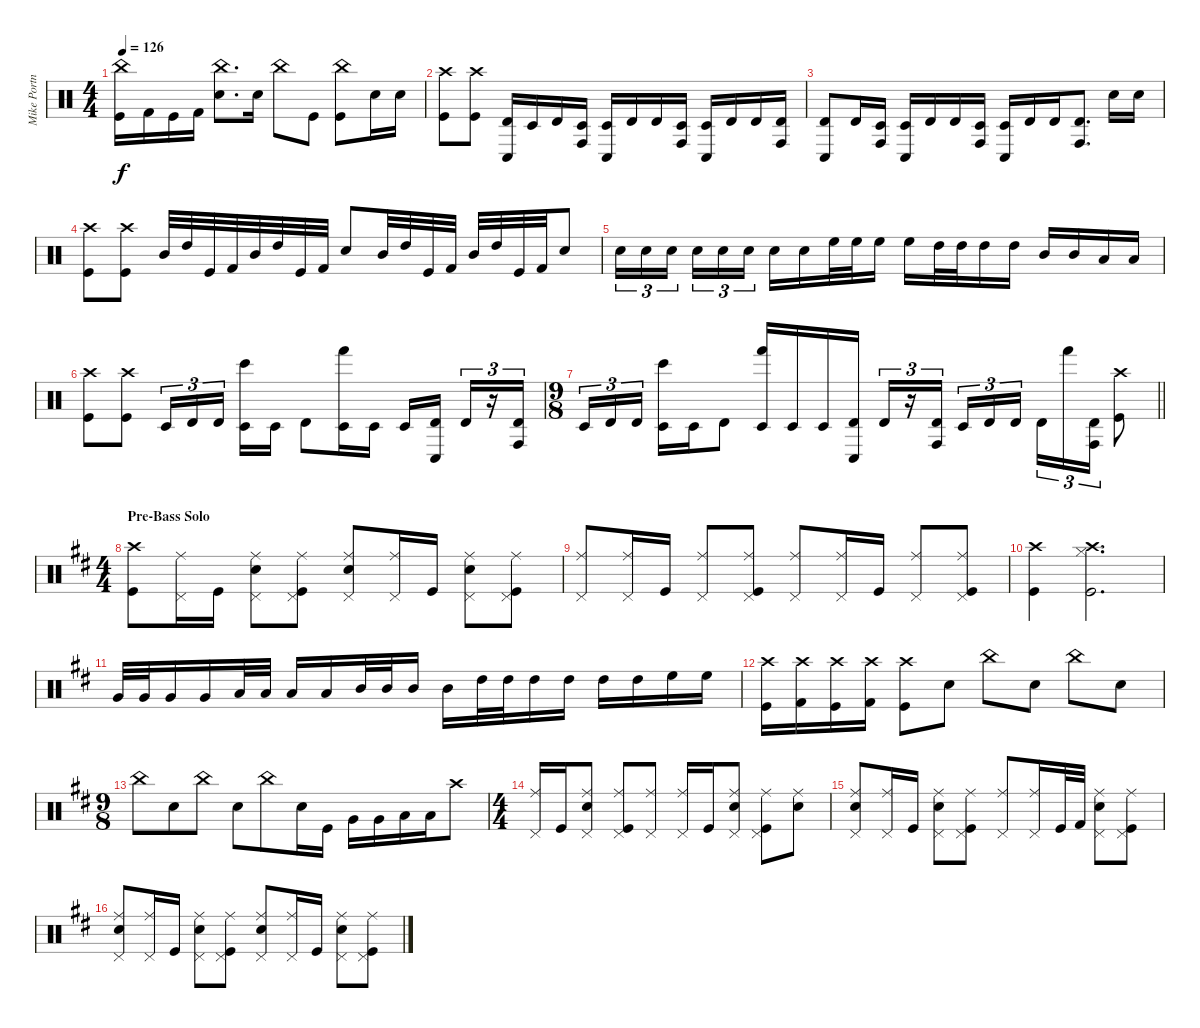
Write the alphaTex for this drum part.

\track ("Mike Portnoy" "Mike Portn") {instrument percussion}
\staff {score}
\articulation defaults
\ts (4 4)
\tempo 126
\clef neutral
\ks aminor
("China (hit)" "Kick (hit)").16{dy f} "Kick (hit) 2".16 "Kick (hit)".16 "Kick (hit) 2".16 ("China (hit)" "Snare (hit) 2").8{d} "Snare (hit) 2".16 "China (hit)".8 "Kick (hit)".8 ("China (hit)" "Kick (hit)").8 "Snare (hit) 2".16 "Snare (hit) 2".16 |
("Crash high (hit)" "Kick (hit)").8 ("Crash high (hit)" "Kick (hit)").8 ("Conga low (hit)" "Timbale high (hit)").16 "Timbale low (hit)".16 "Timbale high (hit)".16 ("Conga high (hit)" "Timbale low (hit)").16 ("Conga low (hit)" "Timbale low (hit)").16 "Timbale high (hit)".16 "Timbale high (hit)".16 ("Conga high (hit)" "Timbale low (hit)").16 ("Conga low (hit)" "Timbale low (hit)").16 "Timbale high (hit)".16 "Timbale high (hit)".16 ("Conga high (hit)" "Timbale high (hit)").16 |
("Conga low (hit)" "Timbale high (hit)").8 "Timbale high (hit)".16 ("Conga high (hit)" "Timbale low (hit)").16 ("Conga low (hit)" "Timbale low (hit)").16 "Timbale high (hit)".16 "Timbale high (hit)".16 ("Conga high (hit)" "Timbale low (hit)").16 ("Conga low (hit)" "Timbale low (hit)").16 "Timbale high (hit)".16 "Timbale high (hit)".16 ("Conga high (hit)" "Timbale high (hit)").8{d} "Snare (hit) 2".16 "Snare (hit) 2".16 |
("Crash high (hit)" "Kick (hit)").8 ("Crash high (hit)" "Kick (hit)").8 "Mid Tom (hit)".32 "High Tom (hit)".32 "Kick (hit)".32 "Kick (hit) 2".32 "Mid Tom (hit)".32 "High Tom (hit)".32 "Kick (hit)".32 "Kick (hit) 2".32 "Hand Clap (hit)".8 "Mid Tom (hit)".32 "High Tom (hit)".32 "Kick (hit)".32 "Kick (hit) 2".32 "Mid Tom (hit)".32 "High Tom (hit)".32 "Kick (hit)".32 "Kick (hit) 2".32 "Snare (hit) 2".8 |
"Snare (hit) 2".16{tu (3 2)} "Snare (hit) 2".16{tu (3 2)} "Snare (hit) 2".16{tu (3 2) beam splitsecondary} "Snare (hit) 2".16{tu (3 2)} "Snare (hit) 2".16{tu (3 2)} "Snare (hit) 2".16{tu (3 2)} "Snare (hit) 2".16 "Snare (hit) 2".16 "High Floor Tom (hit)".32 "High Floor Tom (hit)".32 "High Floor Tom (hit)".16 "High Floor Tom (hit)".16 "High Tom (hit)".32 "High Tom (hit)".32 "High Tom (hit)".16 "High Tom (hit)".16 "Mid Tom (hit)".16 "Mid Tom (hit)".16 "Low Tom (hit)".16 "Low Tom (hit)".16 |
("Crash high (hit)" "Kick (hit)").8 ("Crash high (hit)" "Kick (hit)").8 "Timbale low (hit)".16{tu (3 2)} "Timbale high (hit)".16{tu (3 2)} "Timbale high (hit)".16{tu (3 2) beam splitsecondary} ("Bongo High (hit)" "Timbale low (hit)").16 "Timbale low (hit)".16 "Timbale high (hit)".8 ("Hand (hit)" "Timbale low (hit)").16 "Timbale low (hit)".16 "Timbale low (hit)".16 ("Conga low (hit)" "Timbale high (hit)").16{beam splitsecondary} "Timbale high (hit)".16{tu (3 2)} r.16{tu (3 2)} ("Conga high (hit)" "Timbale high (hit)").16{tu (3 2)} |
\ts (9 8)
\barLineRight lightlight "Timbale low (hit)".16{tu (3 2)} "Timbale high (hit)".16{tu (3 2)} "Timbale high (hit)".16{tu (3 2) beam splitsecondary}
("Bongo High (hit)" "Timbale low (hit)").16 "Timbale low (hit)".16 "Timbale high (hit)".8 ("Hand (hit)" "Timbale low (hit)").16 "Timbale low (hit)".16 "Timbale low (hit)".16 ("Conga low (hit)" "Timbale high (hit)").16{beam splitsecondary} "Timbale high (hit)".16{tu (3 2)} r.16{tu (3 2)} ("Conga high (hit)" "Timbale high (hit)").16{tu (3 2)} "Timbale low (hit)".16{tu (3 2)} "Timbale high (hit)".16{tu (3 2)} "Timbale high (hit)".16{tu (3 2) beam splitsecondary} "Timbale high (hit)".16{tu (3 2)} "Hand (hit)".16{tu (3 2)} ("Conga high (hit)" "Timbale high (hit)").16{tu (3 2)} ("Crash high (hit)" "Kick (hit)").8 |
\ts (4 4)
\section ("" "Pre-Bass Solo")
\ks bminor
("Crash high (hit)" "Kick (hit)").8 ("Pedal Hi-Hat (hit)" "Ride (middle)").16 "Kick (hit)".16 ("Pedal Hi-Hat (hit)" "Ride (middle)" "Snare (hit) 2").8 ("Pedal Hi-Hat (hit)" "Ride (middle)" "Kick (hit)").8 ("Pedal Hi-Hat (hit)" "Ride (middle)" "Snare (hit) 2").8 ("Pedal Hi-Hat (hit)" "Ride (middle)").16 "Kick (hit)".16 ("Pedal Hi-Hat (hit)" "Ride (middle)" "Snare (hit) 2").8 ("Pedal Hi-Hat (hit)" "Ride (middle)" "Kick (hit)").8 |
("Pedal Hi-Hat (hit)" "Ride (middle)").8 ("Pedal Hi-Hat (hit)" "Ride (middle)").16 "Kick (hit)".16 ("Pedal Hi-Hat (hit)" "Ride (middle)").8 ("Pedal Hi-Hat (hit)" "Ride (middle)" "Kick (hit)").8 ("Pedal Hi-Hat (hit)" "Ride (middle)").8 ("Pedal Hi-Hat (hit)" "Ride (middle)").16 "Kick (hit)".16 ("Pedal Hi-Hat (hit)" "Ride (middle)").8 ("Pedal Hi-Hat (hit)" "Ride (middle)" "Kick (hit)").8 |
("Crash high (hit)" "Kick (hit)").4 ("Crash high (hit)" "Hi-Hat (closed)" "Kick (hit)").2{d} |
"Very Low Tom (hit)".32 "Very Low Tom (hit)".32 "Very Low Tom (hit)".16 "Very Low Tom (hit)".16 "Low Tom (hit)".32 "Low Tom (hit)".32 "Low Tom (hit)".16 "Low Tom (hit)".16 "Mid Tom (hit)".32 "Mid Tom (hit)".32 "Mid Tom (hit)".16 "Mid Tom (hit)".16 "High Tom (hit)".32 "High Tom (hit)".32 "High Tom (hit)".16 "High Tom (hit)".16 "High Tom (hit)".16 "High Tom (hit)".16 "High Floor Tom (hit)".16 "High Floor Tom (hit)".16 |
("Kick (hit)" "Crash high (hit)").16 ("Kick (hit) 2" "Crash high (hit)").16 ("Kick (hit)" "Crash high (hit)").16 ("Kick (hit) 2" "Crash high (hit)").16 ("Kick (hit)" "Crash high (hit)").8 "Snare (hit) 2".8 "China (hit)".8 "Snare (hit) 2".8 "China (hit)".8 "Snare (hit) 2".8 |
\ts (9 8)
"China (hit)".8 "Snare (hit) 2".8 "China (hit)".8 "Snare (hit) 2".8 "China (hit)".8 "Snare (hit) 2".16 "Kick (hit)".16 "Very Low Tom (hit)".16 "Very Low Tom (hit)".16 "Low Tom (hit)".16 "Low Tom (hit)".16 "Crash high (hit)".8 |
\ts (4 4)
("Pedal Hi-Hat (hit)" "Ride (middle)").16 "Kick (hit)".16 ("Pedal Hi-Hat (hit)" "Ride (middle)" "Snare (hit) 2").8 ("Pedal Hi-Hat (hit)" "Ride (middle)" "Kick (hit)").8 ("Pedal Hi-Hat (hit)" "Ride (middle)").8 ("Pedal Hi-Hat (hit)" "Ride (middle)").16 "Kick (hit)".16 ("Pedal Hi-Hat (hit)" "Ride (middle)" "Snare (hit) 2").8 ("Pedal Hi-Hat (hit)" "Ride (middle)" "Kick (hit)").8 ("Ride (middle)" "Snare (hit) 2").8 |
("Pedal Hi-Hat (hit)" "Ride (middle)" "Snare (hit) 2").8 ("Pedal Hi-Hat (hit)" "Ride (middle)").16 "Kick (hit)".16 ("Pedal Hi-Hat (hit)" "Ride (middle)" "Snare (hit) 2").8 ("Pedal Hi-Hat (hit)" "Ride (middle)" "Kick (hit)").8 ("Pedal Hi-Hat (hit)" "Ride (middle)").8 ("Pedal Hi-Hat (hit)" "Ride (middle)").16 "Kick (hit)".32 "Kick (hit) 2".32 ("Pedal Hi-Hat (hit)" "Ride (middle)" "Snare (hit) 2").8 ("Pedal Hi-Hat (hit)" "Ride (middle)" "Kick (hit)").8 |
("Pedal Hi-Hat (hit)" "Ride (middle)" "Snare (hit) 2").8 ("Pedal Hi-Hat (hit)" "Ride (middle)").16 "Kick (hit)".16 ("Pedal Hi-Hat (hit)" "Ride (middle)" "Snare (hit) 2").8 ("Pedal Hi-Hat (hit)" "Ride (middle)" "Kick (hit)").8 ("Pedal Hi-Hat (hit)" "Ride (middle)" "Snare (hit) 2").8 ("Pedal Hi-Hat (hit)" "Ride (middle)").16 "Kick (hit)".16 ("Pedal Hi-Hat (hit)" "Ride (middle)" "Snare (hit) 2").8 ("Pedal Hi-Hat (hit)" "Ride (middle)" "Kick (hit)").8
